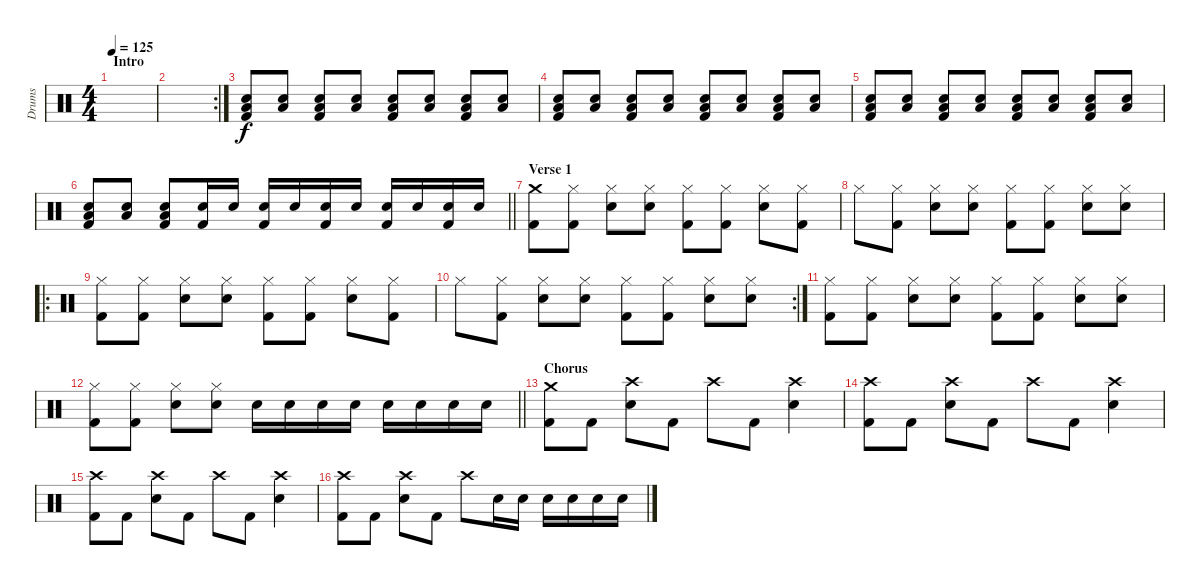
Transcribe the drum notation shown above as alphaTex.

\track ("Drums" "Drums") {instrument percussion}
\staff {score}
\articulation defaults
\ts (4 4)
\section ("" "Intro")
\tempo 125
\clef neutral
\ks c
|
\rc 2
|
("Low Floor Tom (hit)" "Electric Snare (hit)" "Kick (hit) 2").8 ("Low Floor Tom (hit)" "Electric Snare (hit)").8 ("Low Floor Tom (hit)" "Electric Snare (hit)" "Kick (hit) 2").8 ("Low Floor Tom (hit)" "Electric Snare (hit)").8 ("Low Floor Tom (hit)" "Electric Snare (hit)" "Kick (hit) 2").8 ("Low Floor Tom (hit)" "Electric Snare (hit)").8 ("Low Floor Tom (hit)" "Electric Snare (hit)" "Kick (hit) 2").8 ("Low Floor Tom (hit)" "Electric Snare (hit)").8 |
("Low Floor Tom (hit)" "Electric Snare (hit)" "Kick (hit) 2").8 ("Low Floor Tom (hit)" "Electric Snare (hit)").8 ("Low Floor Tom (hit)" "Electric Snare (hit)" "Kick (hit) 2").8 ("Low Floor Tom (hit)" "Electric Snare (hit)").8 ("Low Floor Tom (hit)" "Electric Snare (hit)" "Kick (hit) 2").8 ("Low Floor Tom (hit)" "Electric Snare (hit)").8 ("Low Floor Tom (hit)" "Electric Snare (hit)" "Kick (hit) 2").8 ("Low Floor Tom (hit)" "Electric Snare (hit)").8 |
("Low Floor Tom (hit)" "Electric Snare (hit)" "Kick (hit) 2").8 ("Low Floor Tom (hit)" "Electric Snare (hit)").8 ("Low Floor Tom (hit)" "Electric Snare (hit)" "Kick (hit) 2").8 ("Low Floor Tom (hit)" "Electric Snare (hit)").8 ("Low Floor Tom (hit)" "Electric Snare (hit)" "Kick (hit) 2").8 ("Low Floor Tom (hit)" "Electric Snare (hit)").8 ("Low Floor Tom (hit)" "Electric Snare (hit)" "Kick (hit) 2").8 ("Low Floor Tom (hit)" "Electric Snare (hit)").8 |
\barLineRight lightlight
("Low Floor Tom (hit)" "Electric Snare (hit)" "Kick (hit) 2").8 ("Low Floor Tom (hit)" "Electric Snare (hit)").8 ("Low Floor Tom (hit)" "Electric Snare (hit)" "Kick (hit) 2").8 ("Electric Snare (hit)" "Kick (hit) 2").16 "Electric Snare (hit)".16 ("Electric Snare (hit)" "Kick (hit) 2").16 "Electric Snare (hit)".16 ("Electric Snare (hit)" "Kick (hit) 2").16 "Electric Snare (hit)".16 ("Electric Snare (hit)" "Kick (hit) 2").16 "Electric Snare (hit)".16 ("Electric Snare (hit)" "Kick (hit) 2").16 "Electric Snare (hit)".16 |
\section ("" "Verse 1")
("Crash medium (hit)" "Kick (hit) 2").8 ("Hi-Hat (closed)" "Kick (hit) 2").8 ("Hi-Hat (closed)" "Electric Snare (hit)").8 ("Hi-Hat (closed)" "Electric Snare (hit)").8 ("Hi-Hat (closed)" "Kick (hit) 2").8 ("Hi-Hat (closed)" "Kick (hit) 2").8 ("Hi-Hat (closed)" "Electric Snare (hit)").8 ("Hi-Hat (closed)" "Kick (hit) 2").8 |
"Hi-Hat (closed)".8 ("Hi-Hat (closed)" "Kick (hit) 2").8 ("Hi-Hat (closed)" "Electric Snare (hit)").8 ("Hi-Hat (closed)" "Electric Snare (hit)").8 ("Hi-Hat (closed)" "Kick (hit) 2").8 ("Hi-Hat (closed)" "Kick (hit) 2").8 ("Hi-Hat (closed)" "Electric Snare (hit)").8 ("Hi-Hat (closed)" "Electric Snare (hit)").8 |
\ro
("Hi-Hat (closed)" "Kick (hit) 2").8 ("Hi-Hat (closed)" "Kick (hit) 2").8 ("Hi-Hat (closed)" "Electric Snare (hit)").8 ("Hi-Hat (closed)" "Electric Snare (hit)").8 ("Hi-Hat (closed)" "Kick (hit) 2").8 ("Hi-Hat (closed)" "Kick (hit) 2").8 ("Hi-Hat (closed)" "Electric Snare (hit)").8 ("Hi-Hat (closed)" "Kick (hit) 2").8 |
\rc 2 "Hi-Hat (closed)".8
("Hi-Hat (closed)" "Kick (hit) 2").8 ("Hi-Hat (closed)" "Electric Snare (hit)").8 ("Hi-Hat (closed)" "Electric Snare (hit)").8 ("Hi-Hat (closed)" "Kick (hit) 2").8 ("Hi-Hat (closed)" "Kick (hit) 2").8 ("Hi-Hat (closed)" "Electric Snare (hit)").8 ("Hi-Hat (closed)" "Electric Snare (hit)").8 |
("Hi-Hat (closed)" "Kick (hit) 2").8 ("Hi-Hat (closed)" "Kick (hit) 2").8 ("Hi-Hat (closed)" "Electric Snare (hit)").8 ("Hi-Hat (closed)" "Electric Snare (hit)").8 ("Hi-Hat (closed)" "Kick (hit) 2").8 ("Hi-Hat (closed)" "Kick (hit) 2").8 ("Hi-Hat (closed)" "Electric Snare (hit)").8 ("Hi-Hat (closed)" "Electric Snare (hit)").8 |
\barLineRight lightlight
("Hi-Hat (closed)" "Kick (hit) 2").8 ("Hi-Hat (closed)" "Kick (hit) 2").8 ("Hi-Hat (closed)" "Electric Snare (hit)").8 ("Hi-Hat (closed)" "Electric Snare (hit)").8 "Electric Snare (hit)".16 "Electric Snare (hit)".16 "Electric Snare (hit)".16 "Electric Snare (hit)".16 "Electric Snare (hit)".16 "Electric Snare (hit)".16 "Electric Snare (hit)".16 "Electric Snare (hit)".16 |
\section ("" "Chorus")
("Crash medium (hit)" "Kick (hit) 2").8 "Kick (hit) 2".8 ("Crash high (hit)" "Electric Snare (hit)").8 "Kick (hit) 2".8 "Crash high (hit)".8 "Kick (hit) 2".8 ("Crash high (hit)" "Electric Snare (hit)").4 |
("Crash high (hit)" "Kick (hit) 2").8 "Kick (hit) 2".8 ("Crash high (hit)" "Electric Snare (hit)").8 "Kick (hit) 2".8 "Crash high (hit)".8 "Kick (hit) 2".8 ("Crash high (hit)" "Electric Snare (hit)").4 |
("Crash high (hit)" "Kick (hit) 2").8 "Kick (hit) 2".8 ("Crash high (hit)" "Electric Snare (hit)").8 "Kick (hit) 2".8 "Crash high (hit)".8 "Kick (hit) 2".8 ("Crash high (hit)" "Electric Snare (hit)").4 |
("Crash high (hit)" "Kick (hit) 2").8 "Kick (hit) 2".8 ("Crash high (hit)" "Electric Snare (hit)").8 "Kick (hit) 2".8 "Crash high (hit)".8 "Electric Snare (hit)".16 "Electric Snare (hit)".16 "Electric Snare (hit)".16 "Electric Snare (hit)".16 "Electric Snare (hit)".16 "Electric Snare (hit)".16
